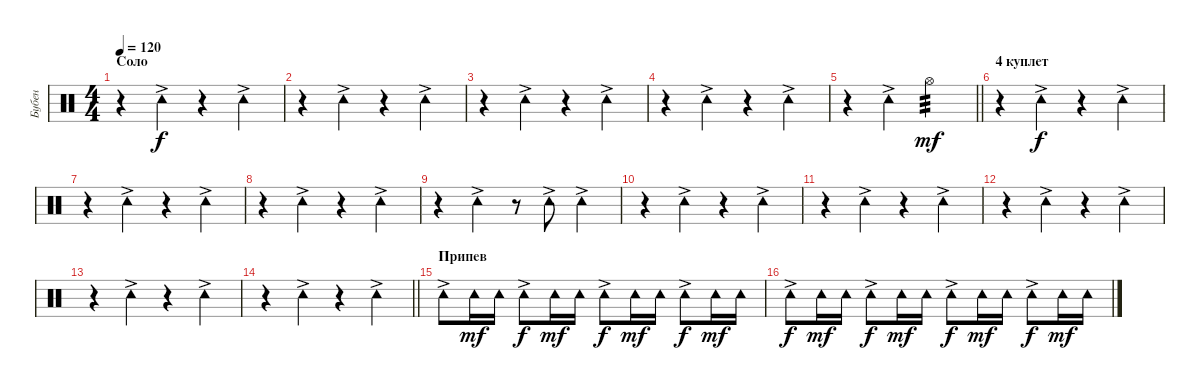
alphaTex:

\track ("Бубен" "Бубен") {instrument percussion}
\staff {score}
\articulation defaults
\ts (4 4)
\section ("" "Соло")
\tempo 120
\clef neutral
\ks c
r.4{dy f} "Tambourine (hit)"{ac}.4 r.4 "Tambourine (hit)"{ac}.4 |
r.4 "Tambourine (hit)"{ac}.4 r.4 "Tambourine (hit)"{ac}.4 |
r.4 "Tambourine (hit)"{ac}.4 r.4 "Tambourine (hit)"{ac}.4 |
r.4 "Tambourine (hit)"{ac}.4 r.4 "Tambourine (hit)"{ac}.4 |
\barLineRight lightlight
r.4 "Tambourine (hit)"{ac}.4 "Hi-Hat (open)".2{tp 3 dy mf} |
\section ("" "4 куплет")
r.4 "Tambourine (hit)"{ac}.4{dy f} r.4 "Tambourine (hit)"{ac}.4 |
r.4 "Tambourine (hit)"{ac}.4 r.4 "Tambourine (hit)"{ac}.4 |
r.4 "Tambourine (hit)"{ac}.4 r.4 "Tambourine (hit)"{ac}.4 |
r.4 "Tambourine (hit)"{ac}.4 r.8 "Tambourine (hit)"{ac}.8 "Tambourine (hit)"{ac}.4 |
r.4 "Tambourine (hit)"{ac}.4 r.4 "Tambourine (hit)"{ac}.4 |
r.4 "Tambourine (hit)"{ac}.4 r.4 "Tambourine (hit)"{ac}.4 |
r.4 "Tambourine (hit)"{ac}.4 r.4 "Tambourine (hit)"{ac}.4 |
r.4 "Tambourine (hit)"{ac}.4 r.4 "Tambourine (hit)"{ac}.4 |
\barLineRight lightlight
r.4 "Tambourine (hit)"{ac}.4 r.4 "Tambourine (hit)"{ac}.4 |
\section ("" "Припев")
"Tambourine (hit)"{ac}.8 "Tambourine (hit)".16{dy mf} "Tambourine (hit)".16 "Tambourine (hit)"{ac}.8{dy f} "Tambourine (hit)".16{dy mf} "Tambourine (hit)".16 "Tambourine (hit)"{ac}.8{dy f} "Tambourine (hit)".16{dy mf} "Tambourine (hit)".16 "Tambourine (hit)"{ac}.8{dy f} "Tambourine (hit)".16{dy mf} "Tambourine (hit)".16 |
"Tambourine (hit)"{ac}.8{dy f} "Tambourine (hit)".16{dy mf} "Tambourine (hit)".16 "Tambourine (hit)"{ac}.8{dy f} "Tambourine (hit)".16{dy mf} "Tambourine (hit)".16 "Tambourine (hit)"{ac}.8{dy f} "Tambourine (hit)".16{dy mf} "Tambourine (hit)".16 "Tambourine (hit)"{ac}.8{dy f} "Tambourine (hit)".16{dy mf} "Tambourine (hit)".16
